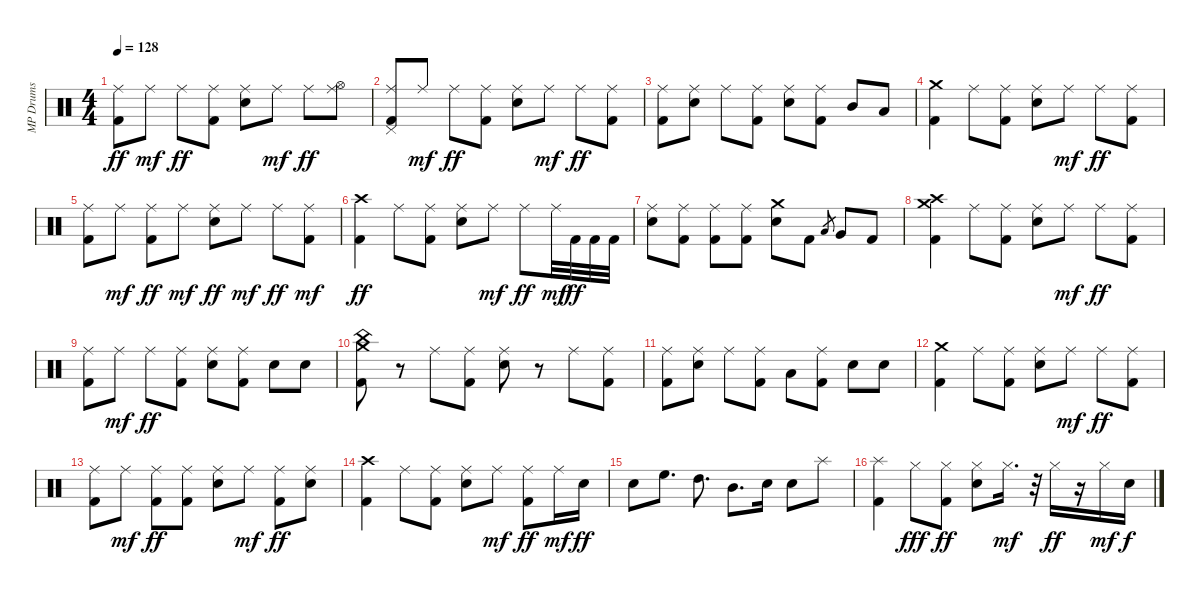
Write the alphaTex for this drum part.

\track ("MP Drums" "MP Drums") {instrument percussion}
\staff {score}
\articulation defaults
\ts (4 4)
\tempo 128
\clef neutral
\ks c
("Ride (middle)" "Kick (hit) 2").8{dy ff} "Ride (middle)".8{dy mf} "Ride (middle)".8{dy ff} ("Ride (middle)" "Kick (hit) 2").8 ("Ride (middle)" "Snare (hit) 2").8 "Ride (middle)".8{dy mf} "Ride (middle)".8{dy ff} ("Ride (middle)" "Hi-Hat (open)").8 |
("Ride (middle)" "Kick (hit) 2" "Pedal Hi-Hat (hit)").8 "Ride (middle)".8{dy mf} "Ride (middle)".8{dy ff} ("Ride (middle)" "Kick (hit) 2").8 ("Ride (middle)" "Snare (hit) 2").8 "Ride (middle)".8{dy mf} "Ride (middle)".8{dy ff} ("Ride (middle)" "Kick (hit) 2").8 |
("Ride (middle)" "Kick (hit) 2").8 ("Ride (middle)" "Snare (hit) 2").8 "Ride (middle)".8 ("Ride (middle)" "Kick (hit) 2").8 ("Ride (middle)" "Snare (hit) 2").8 ("Ride (middle)" "Kick (hit) 2").8 "Mid Tom (hit)".8 "Low Tom (hit)".8 |
("Crash medium (hit)" "Kick (hit) 2").4 "Ride (middle)".8 ("Ride (middle)" "Kick (hit) 2").8 ("Ride (middle)" "Snare (hit) 2").8 "Ride (middle)".8{dy mf} "Ride (middle)".8{dy ff} ("Ride (middle)" "Kick (hit) 2").8 |
("Ride (middle)" "Kick (hit) 2").8 "Ride (middle)".8{dy mf} ("Ride (middle)" "Kick (hit) 2").8{dy ff} "Ride (middle)".8{dy mf} ("Ride (middle)" "Snare (hit) 2").8{dy ff} "Ride (middle)".8{dy mf} "Ride (middle)".8{dy ff} ("Ride (middle)" "Kick (hit) 2").8{dy mf} |
("Crash high (hit)" "Kick (hit) 2").4{dy ff} "Ride (middle)".8 ("Ride (middle)" "Kick (hit) 2").8 ("Ride (middle)" "Snare (hit) 2").8 "Ride (middle)".8{dy mf} "Ride (middle)".8{dy ff} "Ride (middle)".32{dy mf} "Kick (hit) 2".32{dy ff} "Kick (hit) 2".32 "Kick (hit) 2".32 |
("Ride (middle)" "Snare (hit) 2").8 ("Ride (middle)" "Kick (hit) 2").8 ("Ride (middle)" "Kick (hit) 2").8 ("Ride (middle)" "Kick (hit) 2").8 ("Crash medium (hit)" "Snare (hit) 2").8 "Kick (hit) 2".8 "Low Tom (hit)".8{gr} "Very Low Tom (hit)".8 "Kick (hit) 2".8 |
("Crash high (hit)" "Crash medium (hit)" "Kick (hit) 2").4 "Ride (middle)".8 ("Ride (middle)" "Kick (hit) 2").8 ("Ride (middle)" "Snare (hit) 2").8 "Ride (middle)".8{dy mf} "Ride (middle)".8{dy ff} ("Ride (middle)" "Kick (hit) 2").8 |
("Ride (middle)" "Kick (hit) 2").8 "Ride (middle)".8{dy mf} "Ride (middle)".8{dy ff} ("Ride (middle)" "Kick (hit) 2").8 ("Ride (middle)" "Snare (hit) 2").8 ("Ride (middle)" "Kick (hit) 2").8 "Snare (hit) 2".8 "Snare (hit) 2".8 |
("China (hit)" "Crash medium (hit)" "Kick (hit) 2").8 r.8 "Ride (middle)".8 ("Ride (middle)" "Kick (hit) 2").8 ("Ride (middle)" "Snare (hit) 2").8 r.8 "Ride (middle)".8 ("Ride (middle)" "Kick (hit) 2").8 |
("Ride (middle)" "Kick (hit) 2").8 ("Ride (middle)" "Snare (hit) 2").8 "Ride (middle)".8 ("Ride (middle)" "Kick (hit) 2").8 "Low Tom (hit)".8 ("Ride (middle)" "Kick (hit) 2").8 "Snare (hit) 2".8 "Snare (hit) 2".8 |
("Crash medium (hit)" "Kick (hit) 2").4 "Ride (middle)".8 ("Ride (middle)" "Kick (hit) 2").8 ("Ride (middle)" "Snare (hit) 2").8 "Ride (middle)".8{dy mf} "Ride (middle)".8{dy ff} ("Ride (middle)" "Kick (hit) 2").8 |
("Ride (middle)" "Kick (hit) 2").8 "Ride (middle)".8{dy mf} ("Ride (middle)" "Kick (hit) 2").8{dy ff} ("Ride (middle)" "Kick (hit) 2").8 ("Ride (middle)" "Snare (hit) 2").8 "Ride (middle)".8{dy mf} ("Ride (middle)" "Kick (hit) 2").8{dy ff} ("Ride (middle)" "Snare (hit) 2").8 |
("Crash high (hit)" "Kick (hit) 2").4 "Ride (middle)".8 ("Ride (middle)" "Kick (hit) 2").8 ("Ride (middle)" "Snare (hit) 2").8 "Ride (middle)".8{dy mf} ("Ride (middle)" "Kick (hit) 2").8{dy ff} "Ride (middle)".16{dy mf} "Snare (hit) 2".16{dy ff} |
"Snare (hit) 2".8 "High Floor Tom (hit)".8{d} "High Tom (hit)".8{d} "Mid Tom (hit)".8{d} "Snare (hit) 2".16 "Snare (hit) 2".8 "Splash (hit)".8 |
("Splash (hit)" "Kick (hit) 2").4 "Hi-Hat (closed)".8{dy fff} ("Hi-Hat (closed)" "Kick (hit) 2").8{dy ff} ("Hi-Hat (closed)" "Snare (hit) 2").8 "Hi-Hat (closed)".16{d dy mf} r.32 "Hi-Hat (closed)".16{dy ff} r.16 "Hi-Hat (closed)".16{dy mf} "Snare (hit) 2".16{dy f}
